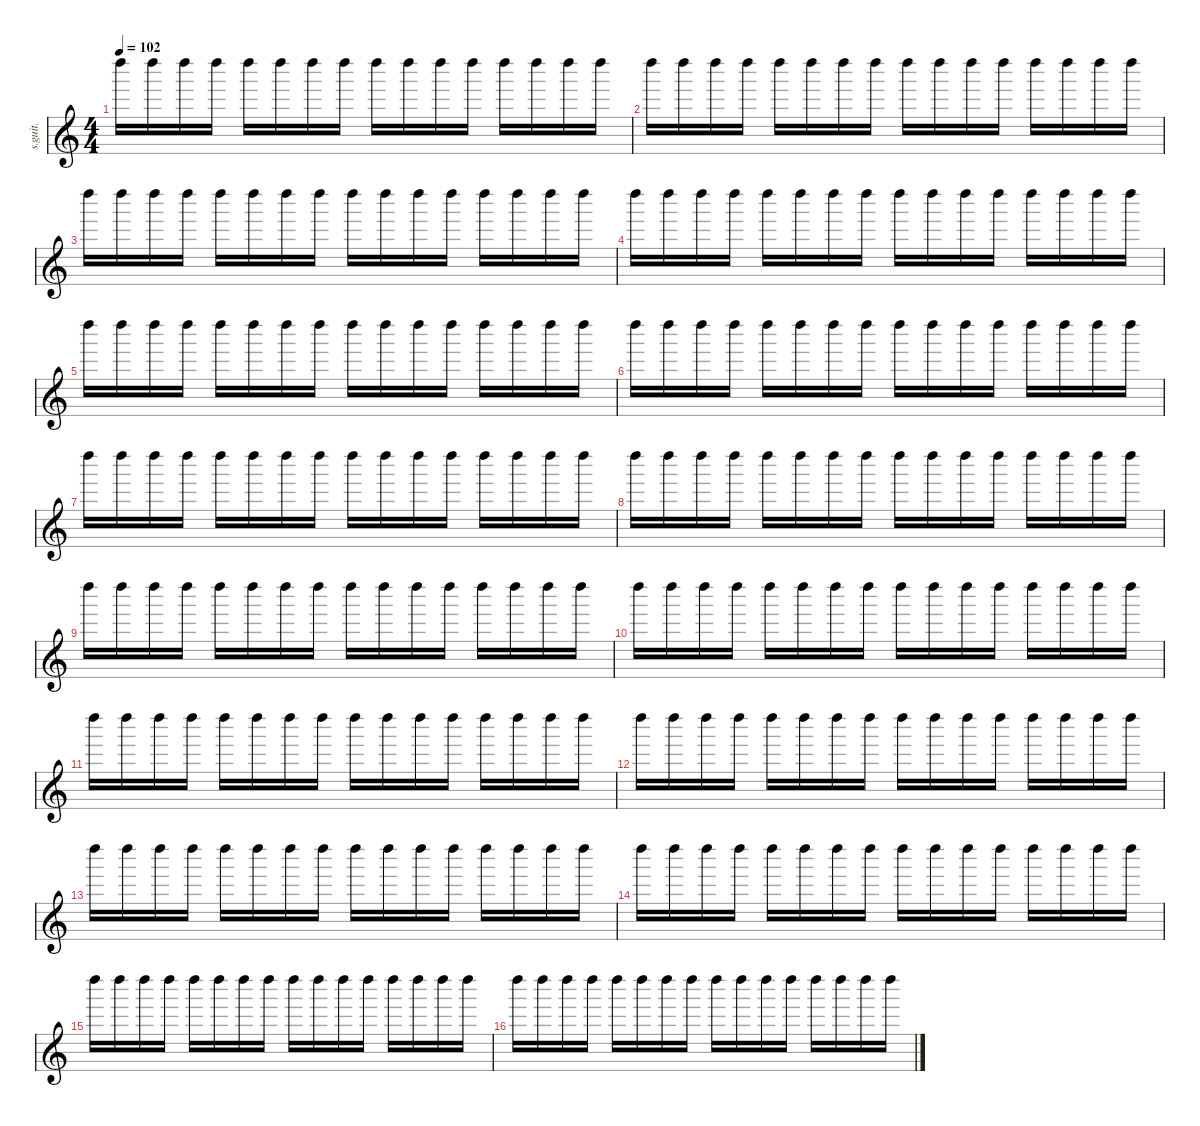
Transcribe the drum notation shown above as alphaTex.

\defaultSystemsLayout 4
\hideDynamics
\bracketExtendMode nobrackets
\track ("Drum Effects" "s.guit.") {instrument percussion}
\staff {score}
\articulation defaults
\ts (4 4)
\beaming (8 2 2 2 2)
\tempo 102
\clef g2
\ks c "Left Maraca (hit)".16{dy p} "Left Maraca (hit)".16{dy pp} "Left Maraca (hit)".16 "Left Maraca (hit)".16 "Left Maraca (hit)".16{dy p} "Left Maraca (hit)".16{dy pp} "Left Maraca (hit)".16 "Left Maraca (hit)".16 "Left Maraca (hit)".16{dy p} "Left Maraca (hit)".16{dy pp} "Left Maraca (hit)".16 "Left Maraca (hit)".16 "Left Maraca (hit)".16{dy p} "Left Maraca (hit)".16{dy pp} "Left Maraca (hit)".16 "Left Maraca (hit)".16
|
"Left Maraca (hit)".16{dy p} "Left Maraca (hit)".16{dy pp} "Left Maraca (hit)".16 "Left Maraca (hit)".16 "Left Maraca (hit)".16{dy p} "Left Maraca (hit)".16{dy pp} "Left Maraca (hit)".16 "Left Maraca (hit)".16 "Left Maraca (hit)".16{dy p} "Left Maraca (hit)".16{dy pp} "Left Maraca (hit)".16 "Left Maraca (hit)".16 "Left Maraca (hit)".16{dy p} "Left Maraca (hit)".16{dy pp} "Left Maraca (hit)".16 "Left Maraca (hit)".16 |
"Left Maraca (hit)".16{dy p} "Left Maraca (hit)".16{dy pp} "Left Maraca (hit)".16 "Left Maraca (hit)".16 "Left Maraca (hit)".16{dy p} "Left Maraca (hit)".16{dy pp} "Left Maraca (hit)".16 "Left Maraca (hit)".16 "Left Maraca (hit)".16{dy p} "Left Maraca (hit)".16{dy pp} "Left Maraca (hit)".16 "Left Maraca (hit)".16 "Left Maraca (hit)".16{dy p} "Left Maraca (hit)".16{dy pp} "Left Maraca (hit)".16 "Left Maraca (hit)".16 |
"Left Maraca (hit)".16{dy p} "Left Maraca (hit)".16{dy pp} "Left Maraca (hit)".16 "Left Maraca (hit)".16 "Left Maraca (hit)".16{dy p} "Left Maraca (hit)".16{dy pp} "Left Maraca (hit)".16 "Left Maraca (hit)".16 "Left Maraca (hit)".16{dy p} "Left Maraca (hit)".16{dy pp} "Left Maraca (hit)".16 "Left Maraca (hit)".16 "Left Maraca (hit)".16{dy p} "Left Maraca (hit)".16{dy pp} "Left Maraca (hit)".16 "Left Maraca (hit)".16 |
"Left Maraca (hit)".16{dy p} "Left Maraca (hit)".16{dy pp} "Left Maraca (hit)".16 "Left Maraca (hit)".16 "Left Maraca (hit)".16{dy p} "Left Maraca (hit)".16{dy pp} "Left Maraca (hit)".16 "Left Maraca (hit)".16 "Left Maraca (hit)".16{dy p} "Left Maraca (hit)".16{dy pp} "Left Maraca (hit)".16 "Left Maraca (hit)".16 "Left Maraca (hit)".16{dy p} "Left Maraca (hit)".16{dy pp} "Left Maraca (hit)".16 "Left Maraca (hit)".16 |
"Left Maraca (hit)".16{dy p} "Left Maraca (hit)".16{dy pp} "Left Maraca (hit)".16 "Left Maraca (hit)".16 "Left Maraca (hit)".16{dy p} "Left Maraca (hit)".16{dy pp} "Left Maraca (hit)".16 "Left Maraca (hit)".16 "Left Maraca (hit)".16{dy p} "Left Maraca (hit)".16{dy pp} "Left Maraca (hit)".16 "Left Maraca (hit)".16 "Left Maraca (hit)".16{dy p} "Left Maraca (hit)".16{dy pp} "Left Maraca (hit)".16 "Left Maraca (hit)".16 |
"Left Maraca (hit)".16{dy p} "Left Maraca (hit)".16{dy pp} "Left Maraca (hit)".16 "Left Maraca (hit)".16 "Left Maraca (hit)".16{dy p} "Left Maraca (hit)".16{dy pp} "Left Maraca (hit)".16 "Left Maraca (hit)".16 "Left Maraca (hit)".16{dy p} "Left Maraca (hit)".16{dy pp} "Left Maraca (hit)".16 "Left Maraca (hit)".16 "Left Maraca (hit)".16{dy p} "Left Maraca (hit)".16{dy pp} "Left Maraca (hit)".16 "Left Maraca (hit)".16 |
"Left Maraca (hit)".16{dy p} "Left Maraca (hit)".16{dy pp} "Left Maraca (hit)".16 "Left Maraca (hit)".16 "Left Maraca (hit)".16{dy p} "Left Maraca (hit)".16{dy pp} "Left Maraca (hit)".16 "Left Maraca (hit)".16 "Left Maraca (hit)".16{dy p} "Left Maraca (hit)".16{dy pp} "Left Maraca (hit)".16 "Left Maraca (hit)".16 "Left Maraca (hit)".16{dy p} "Left Maraca (hit)".16{dy pp} "Left Maraca (hit)".16 "Left Maraca (hit)".16 |
"Left Maraca (hit)".16{dy p} "Left Maraca (hit)".16{dy pp} "Left Maraca (hit)".16 "Left Maraca (hit)".16 "Left Maraca (hit)".16{dy p} "Left Maraca (hit)".16{dy pp} "Left Maraca (hit)".16 "Left Maraca (hit)".16 "Left Maraca (hit)".16{dy p} "Left Maraca (hit)".16{dy pp} "Left Maraca (hit)".16 "Left Maraca (hit)".16 "Left Maraca (hit)".16{dy p} "Left Maraca (hit)".16{dy pp} "Left Maraca (hit)".16 "Left Maraca (hit)".16 |
"Left Maraca (hit)".16{dy p} "Left Maraca (hit)".16{dy pp} "Left Maraca (hit)".16 "Left Maraca (hit)".16 "Left Maraca (hit)".16{dy p} "Left Maraca (hit)".16{dy pp} "Left Maraca (hit)".16 "Left Maraca (hit)".16 "Left Maraca (hit)".16{dy p} "Left Maraca (hit)".16{dy pp} "Left Maraca (hit)".16 "Left Maraca (hit)".16 "Left Maraca (hit)".16{dy p} "Left Maraca (hit)".16{dy pp} "Left Maraca (hit)".16 "Left Maraca (hit)".16 |
"Left Maraca (hit)".16{dy p} "Left Maraca (hit)".16{dy pp} "Left Maraca (hit)".16 "Left Maraca (hit)".16 "Left Maraca (hit)".16{dy p} "Left Maraca (hit)".16{dy pp} "Left Maraca (hit)".16 "Left Maraca (hit)".16 "Left Maraca (hit)".16{dy p} "Left Maraca (hit)".16{dy pp} "Left Maraca (hit)".16 "Left Maraca (hit)".16 "Left Maraca (hit)".16{dy p} "Left Maraca (hit)".16{dy pp} "Left Maraca (hit)".16 "Left Maraca (hit)".16 |
"Left Maraca (hit)".16{dy p} "Left Maraca (hit)".16{dy pp} "Left Maraca (hit)".16 "Left Maraca (hit)".16 "Left Maraca (hit)".16{dy p} "Left Maraca (hit)".16{dy pp} "Left Maraca (hit)".16 "Left Maraca (hit)".16 "Left Maraca (hit)".16{dy p} "Left Maraca (hit)".16{dy pp} "Left Maraca (hit)".16 "Left Maraca (hit)".16 "Left Maraca (hit)".16{dy p} "Left Maraca (hit)".16{dy pp} "Left Maraca (hit)".16 "Left Maraca (hit)".16 |
"Left Maraca (hit)".16{dy p} "Left Maraca (hit)".16{dy pp} "Left Maraca (hit)".16 "Left Maraca (hit)".16 "Left Maraca (hit)".16{dy p} "Left Maraca (hit)".16{dy pp} "Left Maraca (hit)".16 "Left Maraca (hit)".16 "Left Maraca (hit)".16{dy p} "Left Maraca (hit)".16{dy pp} "Left Maraca (hit)".16 "Left Maraca (hit)".16 "Left Maraca (hit)".16{dy p} "Left Maraca (hit)".16{dy pp} "Left Maraca (hit)".16 "Left Maraca (hit)".16 |
"Left Maraca (hit)".16{dy p} "Left Maraca (hit)".16{dy pp} "Left Maraca (hit)".16 "Left Maraca (hit)".16 "Left Maraca (hit)".16{dy p} "Left Maraca (hit)".16{dy pp} "Left Maraca (hit)".16 "Left Maraca (hit)".16 "Left Maraca (hit)".16{dy p} "Left Maraca (hit)".16{dy pp} "Left Maraca (hit)".16 "Left Maraca (hit)".16 "Left Maraca (hit)".16{dy p} "Left Maraca (hit)".16{dy pp} "Left Maraca (hit)".16 "Left Maraca (hit)".16 |
"Left Maraca (hit)".16{dy p} "Left Maraca (hit)".16{dy pp} "Left Maraca (hit)".16 "Left Maraca (hit)".16 "Left Maraca (hit)".16{dy p} "Left Maraca (hit)".16{dy pp} "Left Maraca (hit)".16 "Left Maraca (hit)".16 "Left Maraca (hit)".16{dy p} "Left Maraca (hit)".16{dy pp} "Left Maraca (hit)".16 "Left Maraca (hit)".16 "Left Maraca (hit)".16{dy p} "Left Maraca (hit)".16{dy pp} "Left Maraca (hit)".16 "Left Maraca (hit)".16 |
"Left Maraca (hit)".16{dy p} "Left Maraca (hit)".16{dy pp} "Left Maraca (hit)".16 "Left Maraca (hit)".16 "Left Maraca (hit)".16{dy p} "Left Maraca (hit)".16{dy pp} "Left Maraca (hit)".16 "Left Maraca (hit)".16 "Left Maraca (hit)".16{dy p} "Left Maraca (hit)".16{dy pp} "Left Maraca (hit)".16 "Left Maraca (hit)".16 "Left Maraca (hit)".16{dy p} "Left Maraca (hit)".16{dy pp} "Left Maraca (hit)".16 "Left Maraca (hit)".16
